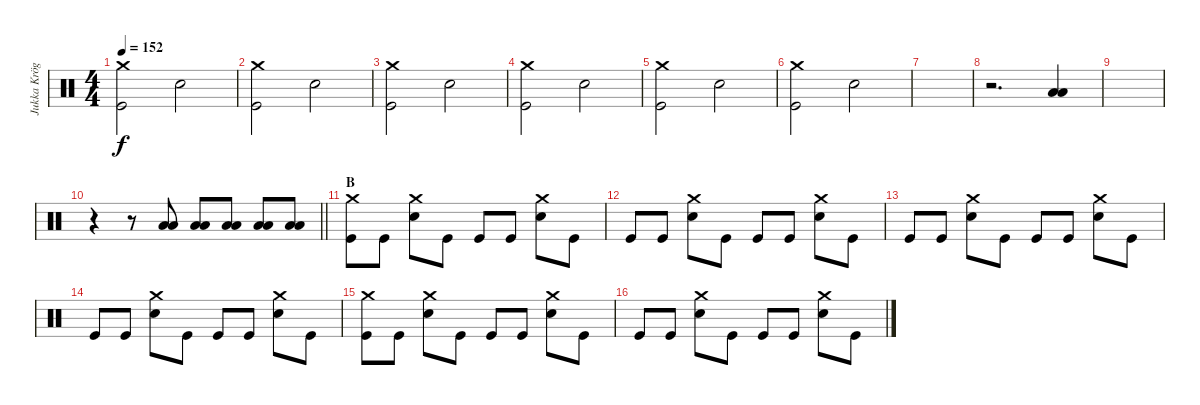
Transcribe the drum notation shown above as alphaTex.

\track ("Jukka Kröger" "Jukka Krög") {instrument percussion}
\staff {score}
\articulation defaults
\ts (4 4)
\tempo 152
\clef neutral
\ks aminor
("Crash medium (hit)" "Kick (hit)").2{dy f} "Snare (hit) 2".2 |
("Crash medium (hit)" "Kick (hit)").2 "Snare (hit) 2".2 |
("Crash medium (hit)" "Kick (hit)").2 "Snare (hit) 2".2 |
("Crash medium (hit)" "Kick (hit)").2 "Snare (hit) 2".2 |
("Crash medium (hit)" "Kick (hit)").2 "Snare (hit) 2".2 |
("Crash medium (hit)" "Kick (hit)").2 "Snare (hit) 2".2 |
|
r.2{d} ("Low Tom (hit)" "Low Floor Tom (hit)").4 |
|
\barLineRight lightlight
r.4 r.8 ("Low Tom (hit)" "Low Floor Tom (hit)").8 ("Low Tom (hit)" "Low Floor Tom (hit)").8 ("Low Tom (hit)" "Low Floor Tom (hit)").8 ("Low Tom (hit)" "Low Floor Tom (hit)").8 ("Low Tom (hit)" "Low Floor Tom (hit)").8 |
\section ("" "B")
("Crash medium (hit)" "Kick (hit)").8 "Kick (hit)".8 ("Crash medium (hit)" "Snare (hit) 2").8 "Kick (hit)".8 "Kick (hit)".8 "Kick (hit)".8 ("Crash medium (hit)" "Snare (hit) 2").8 "Kick (hit)".8 |
"Kick (hit)".8 "Kick (hit)".8 ("Crash medium (hit)" "Snare (hit) 2").8 "Kick (hit)".8 "Kick (hit)".8 "Kick (hit)".8 ("Crash medium (hit)" "Snare (hit) 2").8 "Kick (hit)".8 |
"Kick (hit)".8 "Kick (hit)".8 ("Crash medium (hit)" "Snare (hit) 2").8 "Kick (hit)".8 "Kick (hit)".8 "Kick (hit)".8 ("Crash medium (hit)" "Snare (hit) 2").8 "Kick (hit)".8 |
"Kick (hit)".8 "Kick (hit)".8 ("Crash medium (hit)" "Snare (hit) 2").8 "Kick (hit)".8 "Kick (hit)".8 "Kick (hit)".8 ("Crash medium (hit)" "Snare (hit) 2").8 "Kick (hit)".8 |
("Crash medium (hit)" "Kick (hit)").8 "Kick (hit)".8 ("Crash medium (hit)" "Snare (hit) 2").8 "Kick (hit)".8 "Kick (hit)".8 "Kick (hit)".8 ("Crash medium (hit)" "Snare (hit) 2").8 "Kick (hit)".8 |
"Kick (hit)".8 "Kick (hit)".8 ("Crash medium (hit)" "Snare (hit) 2").8 "Kick (hit)".8 "Kick (hit)".8 "Kick (hit)".8 ("Crash medium (hit)" "Snare (hit) 2").8 "Kick (hit)".8
